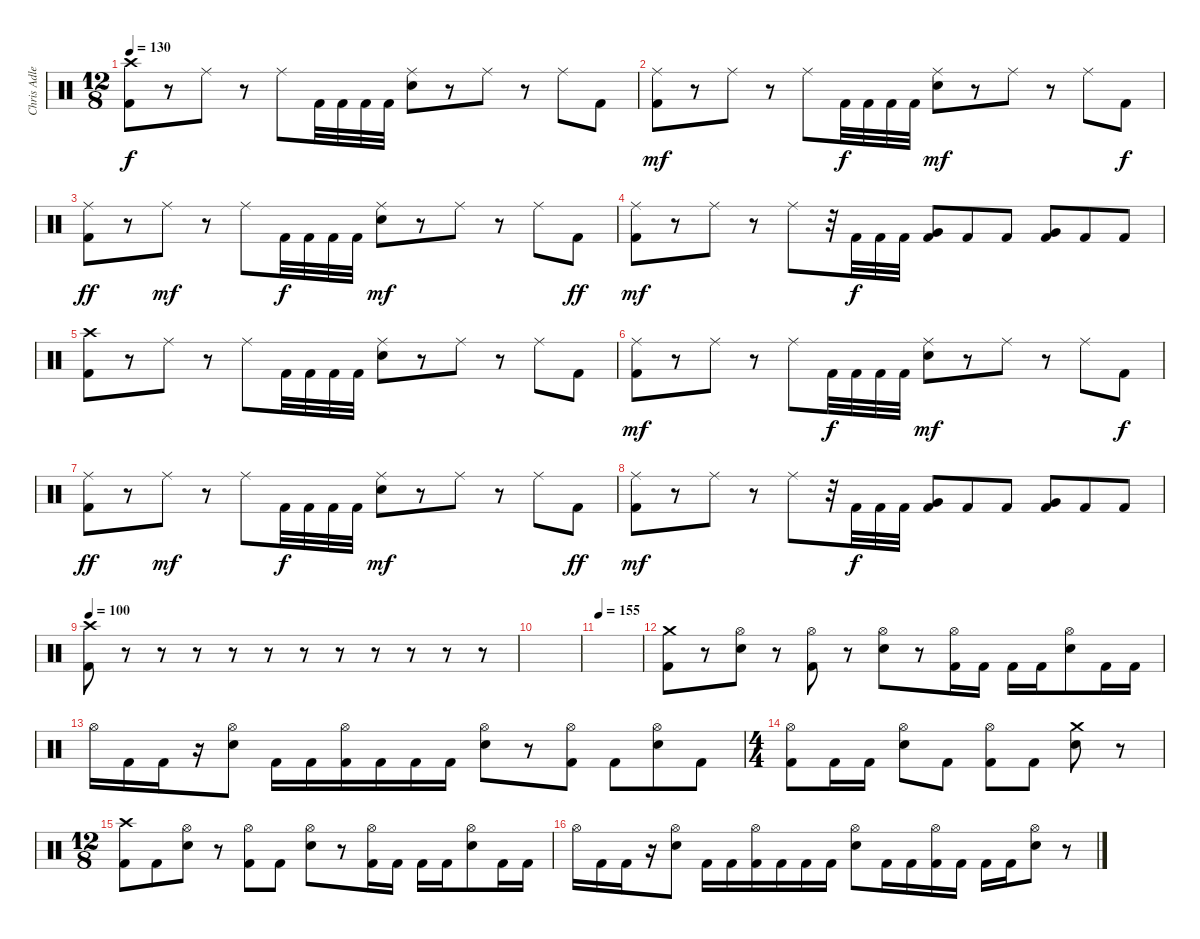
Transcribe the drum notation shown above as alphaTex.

\track ("Chris Adler" "Chris Adle") {instrument percussion}
\staff {score}
\articulation defaults
\ts (12 8)
\tempo 130
\clef neutral
\ks c
("Crash high (hit)" "Kick (hit) 2").8{dy f} r.8 "Ride (middle)".8 r.8 "Ride (middle)".8 "Kick (hit) 2".32 "Kick (hit) 2".32 "Kick (hit) 2".32 "Kick (hit) 2".32 ("Ride (middle)" "Electric Snare (hit)").8 r.8 "Ride (middle)".8 r.8 "Ride (middle)".8 "Kick (hit) 2".8 |
("Ride (middle)" "Kick (hit) 2").8{dy mf} r.8 "Ride (middle)".8 r.8 "Ride (middle)".8 "Kick (hit) 2".32{dy f} "Kick (hit) 2".32 "Kick (hit) 2".32 "Kick (hit) 2".32 ("Ride (middle)" "Electric Snare (hit)").8{dy mf} r.8 "Ride (middle)".8 r.8 "Ride (middle)".8 "Kick (hit) 2".8{dy f} |
("Ride (middle)" "Kick (hit) 2").8{dy ff} r.8 "Ride (middle)".8{dy mf} r.8 "Ride (middle)".8 "Kick (hit) 2".32{dy f} "Kick (hit) 2".32 "Kick (hit) 2".32 "Kick (hit) 2".32 ("Ride (middle)" "Electric Snare (hit)").8{dy mf} r.8 "Ride (middle)".8 r.8 "Ride (middle)".8 "Kick (hit) 2".8{dy ff} |
("Ride (middle)" "Kick (hit) 2").8{dy mf} r.8 "Ride (middle)".8 r.8 "Ride (middle)".8 r.32 "Kick (hit) 2".32{dy f} "Kick (hit) 2".32 "Kick (hit) 2".32 ("Very Low Tom (hit)" "Kick (hit) 2").8 "Kick (hit) 2".8 "Kick (hit) 2".8 ("Very Low Tom (hit)" "Kick (hit) 2").8 "Kick (hit) 2".8 "Kick (hit) 2".8 |
("Crash high (hit)" "Kick (hit) 2").8 r.8 "Ride (middle)".8 r.8 "Ride (middle)".8 "Kick (hit) 2".32 "Kick (hit) 2".32 "Kick (hit) 2".32 "Kick (hit) 2".32 ("Ride (middle)" "Electric Snare (hit)").8 r.8 "Ride (middle)".8 r.8 "Ride (middle)".8 "Kick (hit) 2".8 |
("Ride (middle)" "Kick (hit) 2").8{dy mf} r.8 "Ride (middle)".8 r.8 "Ride (middle)".8 "Kick (hit) 2".32{dy f} "Kick (hit) 2".32 "Kick (hit) 2".32 "Kick (hit) 2".32 ("Ride (middle)" "Electric Snare (hit)").8{dy mf} r.8 "Ride (middle)".8 r.8 "Ride (middle)".8 "Kick (hit) 2".8{dy f} |
("Ride (middle)" "Kick (hit) 2").8{dy ff} r.8 "Ride (middle)".8{dy mf} r.8 "Ride (middle)".8 "Kick (hit) 2".32{dy f} "Kick (hit) 2".32 "Kick (hit) 2".32 "Kick (hit) 2".32 ("Ride (middle)" "Electric Snare (hit)").8{dy mf} r.8 "Ride (middle)".8 r.8 "Ride (middle)".8 "Kick (hit) 2".8{dy ff} |
("Ride (middle)" "Kick (hit) 2").8{dy mf} r.8 "Ride (middle)".8 r.8 "Ride (middle)".8 r.32 "Kick (hit) 2".32{dy f} "Kick (hit) 2".32 "Kick (hit) 2".32 ("Very Low Tom (hit)" "Kick (hit) 2").8 "Kick (hit) 2".8 "Kick (hit) 2".8 ("Very Low Tom (hit)" "Kick (hit) 2").8 "Kick (hit) 2".8 "Kick (hit) 2".8 |
\tempo 100
("Crash high (hit)" "Kick (hit) 2").8 r.8 r.8 r.8 r.8 r.8 r.8 r.8 r.8 r.8 r.8 r.8 |
|
\tempo 155
|
("Crash medium (hit)" "Kick (hit) 2").8 r.8 ("Hi-Hat (open)" "Electric Snare (hit)").8 r.8 ("Hi-Hat (open)" "Kick (hit) 2").8 r.8 ("Hi-Hat (open)" "Electric Snare (hit)").8 r.8 ("Hi-Hat (open)" "Kick (hit) 2").16 "Kick (hit) 2".16 "Kick (hit) 2".16 "Kick (hit) 2".16 ("Hi-Hat (open)" "Electric Snare (hit)").8 "Kick (hit) 2".16 "Kick (hit) 2".16 |
"Hi-Hat (open)".16 "Kick (hit) 2".16 "Kick (hit) 2".16 r.16 ("Hi-Hat (open)" "Electric Snare (hit)").8 "Kick (hit) 2".16 "Kick (hit) 2".16 ("Hi-Hat (open)" "Kick (hit) 2").16 "Kick (hit) 2".16 "Kick (hit) 2".16 "Kick (hit) 2".16 ("Hi-Hat (open)" "Electric Snare (hit)").8 r.8 ("Hi-Hat (open)" "Kick (hit) 2").8 "Kick (hit) 2".8 ("Hi-Hat (open)" "Electric Snare (hit)").8 "Kick (hit) 2".8 |
\ts (4 4)
("Hi-Hat (open)" "Kick (hit) 2").8 "Kick (hit) 2".16 "Kick (hit) 2".16 ("Hi-Hat (open)" "Electric Snare (hit)").8 "Kick (hit) 2".8 ("Hi-Hat (open)" "Kick (hit) 2").8 "Kick (hit) 2".8 ("Crash medium (hit)" "Electric Snare (hit)").8 r.8 |
\ts (12 8)
("Crash high (hit)" "Kick (hit) 2").8 "Kick (hit) 2".8 ("Hi-Hat (open)" "Electric Snare (hit)").8 r.8 ("Hi-Hat (open)" "Kick (hit) 2").8 "Kick (hit) 2".8 ("Hi-Hat (open)" "Electric Snare (hit)").8 r.8 ("Hi-Hat (open)" "Kick (hit) 2").16 "Kick (hit) 2".16 "Kick (hit) 2".16 "Kick (hit) 2".16 ("Hi-Hat (open)" "Electric Snare (hit)").8 "Kick (hit) 2".16 "Kick (hit) 2".16 |
"Hi-Hat (open)".16 "Kick (hit) 2".16 "Kick (hit) 2".16 r.16 ("Hi-Hat (open)" "Electric Snare (hit)").8 "Kick (hit) 2".16 "Kick (hit) 2".16 ("Hi-Hat (open)" "Kick (hit) 2").16 "Kick (hit) 2".16 "Kick (hit) 2".16 "Kick (hit) 2".16 ("Hi-Hat (open)" "Electric Snare (hit)").8 "Kick (hit) 2".16 "Kick (hit) 2".16 ("Hi-Hat (open)" "Kick (hit) 2").16 "Kick (hit) 2".16 "Kick (hit) 2".16 "Kick (hit) 2".16 ("Hi-Hat (open)" "Electric Snare (hit)").8 r.8
